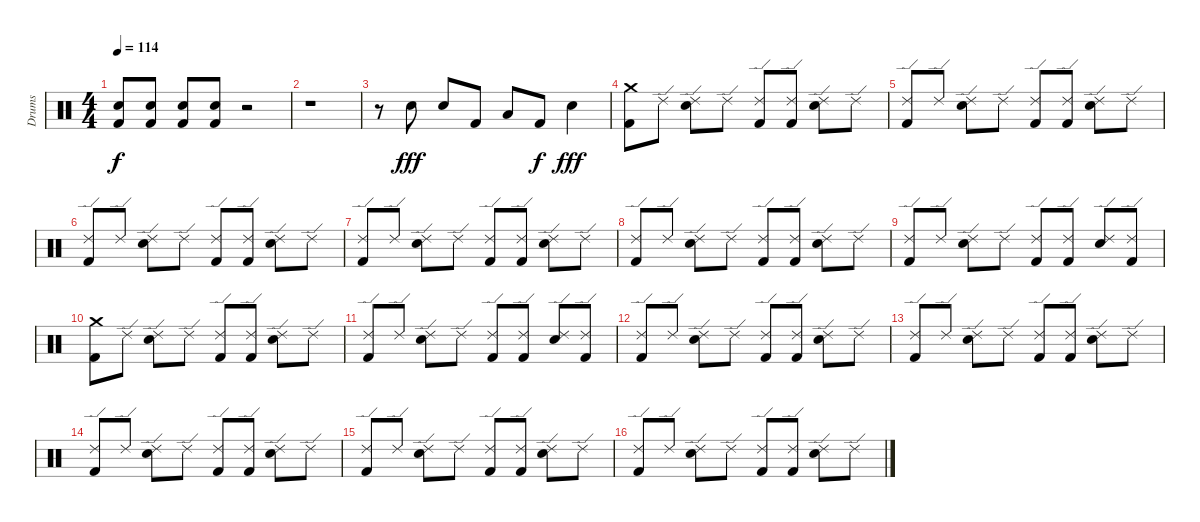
\track ("Drums" "Drums") {instrument percussion}
\staff {score}
\articulation defaults
\ts (4 4)
\tempo 114
\clef neutral
\ks c
("Snare (hit) 2" "Kick (hit) 2").8{dy f} ("Snare (hit) 2" "Kick (hit) 2").8 ("Snare (hit) 2" "Kick (hit) 2").8 ("Snare (hit) 2" "Kick (hit) 2").8 r.2 |
r.1 |
r.8 "Snare (hit) 2".8{dy fff} "Snare (hit) 2".8 "Kick (hit) 2".8 "Low Tom (hit)".8 "Kick (hit) 2".8{dy f} "Snare (hit) 2".4{dy fff} |
("Crash medium (hit)" "Kick (hit) 2").8 "Ride (edge) 2".8 ("Ride (edge) 2" "Snare (hit) 2").8 "Ride (edge) 2".8 ("Ride (edge) 2" "Kick (hit) 2").8 ("Ride (edge) 2" "Kick (hit) 2").8 ("Ride (edge) 2" "Snare (hit) 2").8 "Ride (edge) 2".8 |
("Ride (edge) 2" "Kick (hit) 2").8 "Ride (edge) 2".8 ("Ride (edge) 2" "Snare (hit) 2").8 "Ride (edge) 2".8 ("Ride (edge) 2" "Kick (hit) 2").8 ("Ride (edge) 2" "Kick (hit) 2").8 ("Ride (edge) 2" "Snare (hit) 2").8 "Ride (edge) 2".8 |
("Ride (edge) 2" "Kick (hit) 2").8 "Ride (edge) 2".8 ("Ride (edge) 2" "Snare (hit) 2").8 "Ride (edge) 2".8 ("Ride (edge) 2" "Kick (hit) 2").8 ("Ride (edge) 2" "Kick (hit) 2").8 ("Ride (edge) 2" "Snare (hit) 2").8 "Ride (edge) 2".8 |
("Ride (edge) 2" "Kick (hit) 2").8 "Ride (edge) 2".8 ("Ride (edge) 2" "Snare (hit) 2").8 "Ride (edge) 2".8 ("Ride (edge) 2" "Kick (hit) 2").8 ("Ride (edge) 2" "Kick (hit) 2").8 ("Ride (edge) 2" "Snare (hit) 2").8 "Ride (edge) 2".8 |
("Ride (edge) 2" "Kick (hit) 2").8 "Ride (edge) 2".8 ("Ride (edge) 2" "Snare (hit) 2").8 "Ride (edge) 2".8 ("Ride (edge) 2" "Kick (hit) 2").8 ("Ride (edge) 2" "Kick (hit) 2").8 ("Ride (edge) 2" "Snare (hit) 2").8 "Ride (edge) 2".8 |
("Ride (edge) 2" "Kick (hit) 2").8 "Ride (edge) 2".8 ("Ride (edge) 2" "Snare (hit) 2").8 "Ride (edge) 2".8 ("Ride (edge) 2" "Kick (hit) 2").8 ("Ride (edge) 2" "Kick (hit) 2").8 ("Ride (edge) 2" "Snare (hit) 2").8 ("Ride (edge) 2" "Kick (hit) 2").8 |
("Crash medium (hit)" "Kick (hit) 2").8 "Ride (edge) 2".8 ("Ride (edge) 2" "Snare (hit) 2").8 "Ride (edge) 2".8 ("Ride (edge) 2" "Kick (hit) 2").8 ("Ride (edge) 2" "Kick (hit) 2").8 ("Ride (edge) 2" "Snare (hit) 2").8 "Ride (edge) 2".8 |
("Ride (edge) 2" "Kick (hit) 2").8 "Ride (edge) 2".8 ("Ride (edge) 2" "Snare (hit) 2").8 "Ride (edge) 2".8 ("Ride (edge) 2" "Kick (hit) 2").8 ("Ride (edge) 2" "Kick (hit) 2").8 ("Ride (edge) 2" "Snare (hit) 2").8 ("Ride (edge) 2" "Kick (hit) 2").8 |
("Ride (edge) 2" "Kick (hit) 2").8 "Ride (edge) 2".8 ("Ride (edge) 2" "Snare (hit) 2").8 "Ride (edge) 2".8 ("Ride (edge) 2" "Kick (hit) 2").8 ("Ride (edge) 2" "Kick (hit) 2").8 ("Ride (edge) 2" "Snare (hit) 2").8 "Ride (edge) 2".8 |
("Ride (edge) 2" "Kick (hit) 2").8 "Ride (edge) 2".8 ("Ride (edge) 2" "Snare (hit) 2").8 "Ride (edge) 2".8 ("Ride (edge) 2" "Kick (hit) 2").8 ("Ride (edge) 2" "Kick (hit) 2").8 ("Ride (edge) 2" "Snare (hit) 2").8 "Ride (edge) 2".8 |
("Ride (edge) 2" "Kick (hit) 2").8 "Ride (edge) 2".8 ("Ride (edge) 2" "Snare (hit) 2").8 "Ride (edge) 2".8 ("Ride (edge) 2" "Kick (hit) 2").8 ("Ride (edge) 2" "Kick (hit) 2").8 ("Ride (edge) 2" "Snare (hit) 2").8 "Ride (edge) 2".8 |
("Ride (edge) 2" "Kick (hit) 2").8 "Ride (edge) 2".8 ("Ride (edge) 2" "Snare (hit) 2").8 "Ride (edge) 2".8 ("Ride (edge) 2" "Kick (hit) 2").8 ("Ride (edge) 2" "Kick (hit) 2").8 ("Ride (edge) 2" "Snare (hit) 2").8 "Ride (edge) 2".8 |
("Ride (edge) 2" "Kick (hit) 2").8 "Ride (edge) 2".8 ("Ride (edge) 2" "Snare (hit) 2").8 "Ride (edge) 2".8 ("Ride (edge) 2" "Kick (hit) 2").8 ("Ride (edge) 2" "Kick (hit) 2").8 ("Ride (edge) 2" "Snare (hit) 2").8 "Ride (edge) 2".8
